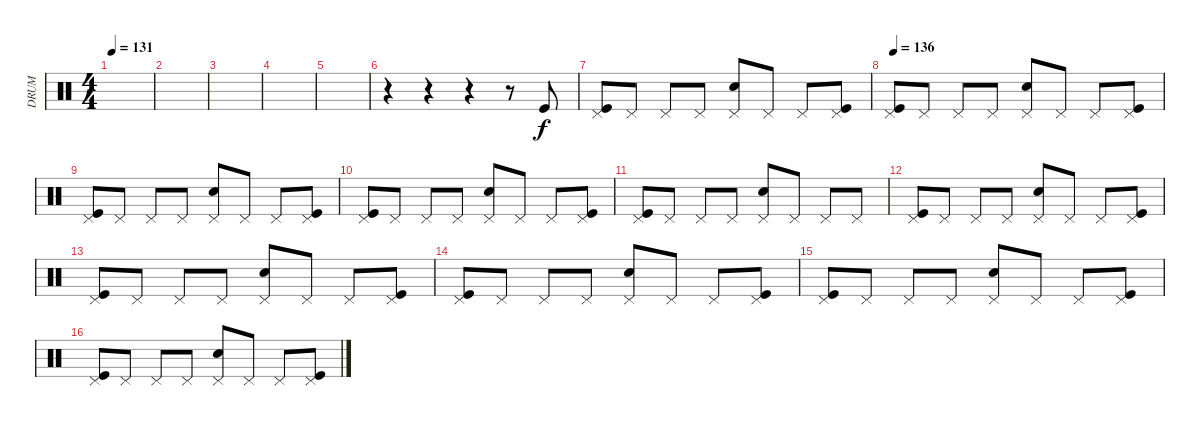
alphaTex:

\track ("DRUM" "DRUM") {instrument percussion}
\staff {score}
\articulation defaults
\ts (4 4)
\tempo 131
\clef neutral
\ks c
|
|
|
|
|
r.4 r.4 r.4 r.8 "Kick (hit)".8 |
("Pedal Hi-Hat (hit)" "Kick (hit)").8 "Pedal Hi-Hat (hit)".8 "Pedal Hi-Hat (hit)".8 "Pedal Hi-Hat (hit)".8 ("Pedal Hi-Hat (hit)" "Snare (hit) 2").8 "Pedal Hi-Hat (hit)".8 "Pedal Hi-Hat (hit)".8 ("Pedal Hi-Hat (hit)" "Kick (hit)").8 |
\tempo 136
("Pedal Hi-Hat (hit)" "Kick (hit)").8 "Pedal Hi-Hat (hit)".8 "Pedal Hi-Hat (hit)".8 "Pedal Hi-Hat (hit)".8 ("Pedal Hi-Hat (hit)" "Snare (hit) 2").8 "Pedal Hi-Hat (hit)".8 "Pedal Hi-Hat (hit)".8 ("Pedal Hi-Hat (hit)" "Kick (hit)").8 |
("Pedal Hi-Hat (hit)" "Kick (hit)").8 "Pedal Hi-Hat (hit)".8 "Pedal Hi-Hat (hit)".8 "Pedal Hi-Hat (hit)".8 ("Pedal Hi-Hat (hit)" "Snare (hit) 2").8 "Pedal Hi-Hat (hit)".8 "Pedal Hi-Hat (hit)".8 ("Pedal Hi-Hat (hit)" "Kick (hit)").8 |
("Pedal Hi-Hat (hit)" "Kick (hit)").8 "Pedal Hi-Hat (hit)".8 "Pedal Hi-Hat (hit)".8 "Pedal Hi-Hat (hit)".8 ("Pedal Hi-Hat (hit)" "Snare (hit) 2").8 "Pedal Hi-Hat (hit)".8 "Pedal Hi-Hat (hit)".8 ("Pedal Hi-Hat (hit)" "Kick (hit)").8 |
("Pedal Hi-Hat (hit)" "Kick (hit)").8 "Pedal Hi-Hat (hit)".8 "Pedal Hi-Hat (hit)".8 "Pedal Hi-Hat (hit)".8 ("Pedal Hi-Hat (hit)" "Snare (hit) 2").8 "Pedal Hi-Hat (hit)".8 "Pedal Hi-Hat (hit)".8 "Pedal Hi-Hat (hit)".8 |
("Pedal Hi-Hat (hit)" "Kick (hit)").8 "Pedal Hi-Hat (hit)".8 "Pedal Hi-Hat (hit)".8 "Pedal Hi-Hat (hit)".8 ("Pedal Hi-Hat (hit)" "Snare (hit) 2").8 "Pedal Hi-Hat (hit)".8 "Pedal Hi-Hat (hit)".8 ("Pedal Hi-Hat (hit)" "Kick (hit)").8 |
("Pedal Hi-Hat (hit)" "Kick (hit)").8 "Pedal Hi-Hat (hit)".8 "Pedal Hi-Hat (hit)".8 "Pedal Hi-Hat (hit)".8 ("Pedal Hi-Hat (hit)" "Snare (hit) 2").8 "Pedal Hi-Hat (hit)".8 "Pedal Hi-Hat (hit)".8 ("Pedal Hi-Hat (hit)" "Kick (hit)").8 |
("Pedal Hi-Hat (hit)" "Kick (hit)").8 "Pedal Hi-Hat (hit)".8 "Pedal Hi-Hat (hit)".8 "Pedal Hi-Hat (hit)".8 ("Pedal Hi-Hat (hit)" "Snare (hit) 2").8 "Pedal Hi-Hat (hit)".8 "Pedal Hi-Hat (hit)".8 ("Pedal Hi-Hat (hit)" "Kick (hit)").8 |
("Pedal Hi-Hat (hit)" "Kick (hit)").8 "Pedal Hi-Hat (hit)".8 "Pedal Hi-Hat (hit)".8 "Pedal Hi-Hat (hit)".8 ("Pedal Hi-Hat (hit)" "Snare (hit) 2").8 "Pedal Hi-Hat (hit)".8 "Pedal Hi-Hat (hit)".8 ("Pedal Hi-Hat (hit)" "Kick (hit)").8 |
("Pedal Hi-Hat (hit)" "Kick (hit)").8 "Pedal Hi-Hat (hit)".8 "Pedal Hi-Hat (hit)".8 "Pedal Hi-Hat (hit)".8 ("Pedal Hi-Hat (hit)" "Snare (hit) 2").8 "Pedal Hi-Hat (hit)".8 "Pedal Hi-Hat (hit)".8 ("Pedal Hi-Hat (hit)" "Kick (hit)").8
